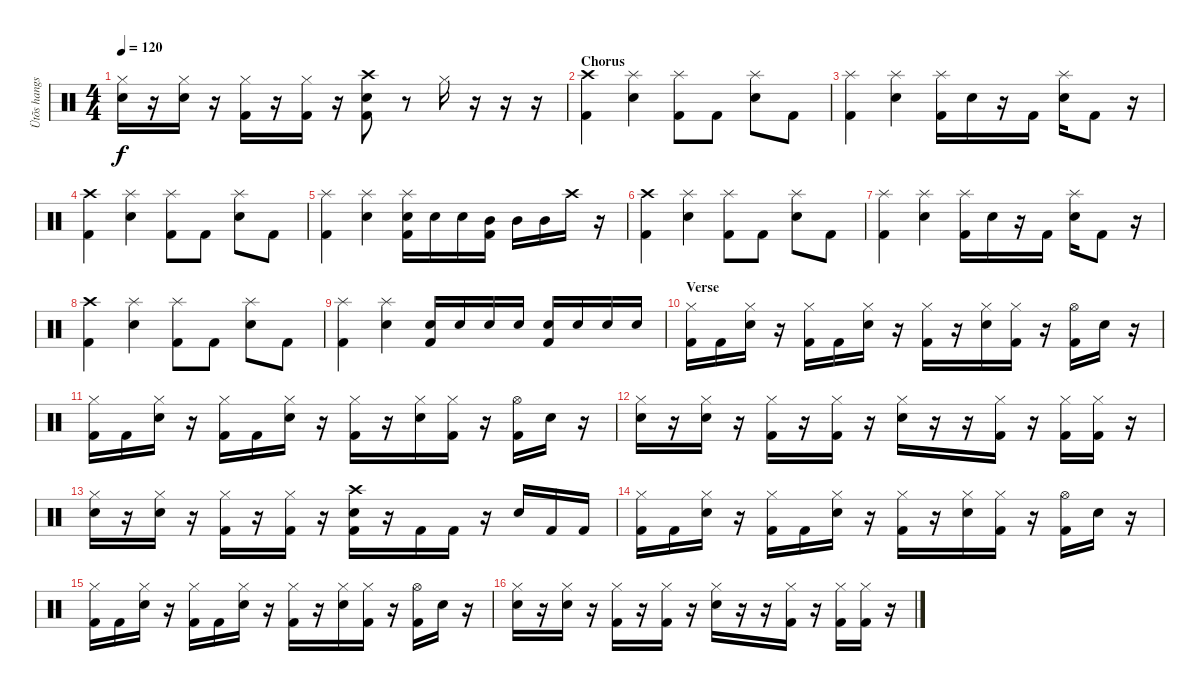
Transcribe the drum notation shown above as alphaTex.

\track ("Ütõs hangszer" "Ütõs hangs") {instrument percussion}
\staff {score}
\articulation defaults
\ts (4 4)
\tempo 120
\clef neutral
\ks c
("Hi-Hat (closed)" "Snare (hit) 2").16{dy f} r.16 ("Hi-Hat (closed)" "Snare (hit) 2").16 r.16 ("Hi-Hat (closed)" "Kick (hit) 2").16 r.16 ("Hi-Hat (closed)" "Kick (hit) 2").16 r.16 ("Crash high (hit)" "Snare (hit) 2" "Kick (hit) 2").8 r.8 "Hi-Hat (closed)".16 r.16 r.16 r.16 |
\section ("" "Chorus")
("Crash high (hit)" "Kick (hit) 2").4 ("Splash (hit)" "Snare (hit) 2").4 ("Splash (hit)" "Kick (hit) 2").8 "Kick (hit) 2".8 ("Splash (hit)" "Snare (hit) 2").8 "Kick (hit) 2".8 |
("Splash (hit)" "Kick (hit) 2").4 ("Splash (hit)" "Snare (hit) 2").4 ("Splash (hit)" "Kick (hit) 2").16 "Snare (hit) 2".16 r.16 "Kick (hit) 2".16 ("Splash (hit)" "Snare (hit) 2").16 "Kick (hit) 2".8 r.16 |
("Crash high (hit)" "Kick (hit) 2").4 ("Splash (hit)" "Snare (hit) 2").4 ("Splash (hit)" "Kick (hit) 2").8 "Kick (hit) 2".8 ("Splash (hit)" "Snare (hit) 2").8 "Kick (hit) 2".8 |
("Splash (hit)" "Kick (hit) 2").4 ("Splash (hit)" "Snare (hit) 2").4 ("Splash (hit)" "Snare (hit) 2" "Kick (hit) 2").16 "Snare (hit) 2".16 "Snare (hit) 2".16 ("Mid Tom (hit)" "Kick (hit) 2").16 "Mid Tom (hit)".16 "Mid Tom (hit)".16 "Crash high (hit)".16 r.16 |
("Crash high (hit)" "Kick (hit) 2").4 ("Splash (hit)" "Snare (hit) 2").4 ("Splash (hit)" "Kick (hit) 2").8 "Kick (hit) 2".8 ("Splash (hit)" "Snare (hit) 2").8 "Kick (hit) 2".8 |
("Splash (hit)" "Kick (hit) 2").4 ("Splash (hit)" "Snare (hit) 2").4 ("Splash (hit)" "Kick (hit) 2").16 "Snare (hit) 2".16 r.16 "Kick (hit) 2".16 ("Splash (hit)" "Snare (hit) 2").16 "Kick (hit) 2".8 r.16 |
("Crash high (hit)" "Kick (hit) 2").4 ("Splash (hit)" "Snare (hit) 2").4 ("Splash (hit)" "Kick (hit) 2").8 "Kick (hit) 2".8 ("Splash (hit)" "Snare (hit) 2").8 "Kick (hit) 2".8 |
("Splash (hit)" "Kick (hit) 2").4 ("Splash (hit)" "Snare (hit) 2").4 ("Snare (hit) 2" "Kick (hit) 2").16 "Snare (hit) 2".16 "Snare (hit) 2".16 "Snare (hit) 2".16 ("Snare (hit) 2" "Kick (hit) 2").16 "Snare (hit) 2".16 "Snare (hit) 2".16 "Snare (hit) 2".16 |
\section ("" "Verse")
("Hi-Hat (closed)" "Kick (hit) 2").16 "Kick (hit) 2".16 ("Hi-Hat (closed)" "Snare (hit) 2").16 r.16 ("Hi-Hat (closed)" "Kick (hit) 2").16 "Kick (hit) 2".16 ("Hi-Hat (closed)" "Snare (hit) 2").16 r.16 ("Hi-Hat (closed)" "Kick (hit) 2").16 r.16 ("Hi-Hat (closed)" "Snare (hit) 2").16 ("Hi-Hat (closed)" "Kick (hit) 2").16 r.16 ("Hi-Hat (open)" "Kick (hit) 2").16 "Snare (hit) 2".16 r.16 |
("Hi-Hat (closed)" "Kick (hit) 2").16 "Kick (hit) 2".16 ("Hi-Hat (closed)" "Snare (hit) 2").16 r.16 ("Hi-Hat (closed)" "Kick (hit) 2").16 "Kick (hit) 2".16 ("Hi-Hat (closed)" "Snare (hit) 2").16 r.16 ("Hi-Hat (closed)" "Kick (hit) 2").16 r.16 ("Hi-Hat (closed)" "Snare (hit) 2").16 ("Hi-Hat (closed)" "Kick (hit) 2").16 r.16 ("Hi-Hat (open)" "Kick (hit) 2").16 "Snare (hit) 2".16 r.16 |
("Hi-Hat (closed)" "Snare (hit) 2").16 r.16 ("Hi-Hat (closed)" "Snare (hit) 2").16 r.16 ("Hi-Hat (closed)" "Kick (hit) 2").16 r.16 ("Hi-Hat (closed)" "Kick (hit) 2").16 r.16 ("Hi-Hat (closed)" "Snare (hit) 2").16 r.16 r.16 ("Hi-Hat (closed)" "Kick (hit) 2").16 r.16 ("Hi-Hat (closed)" "Kick (hit) 2").16 ("Hi-Hat (closed)" "Kick (hit) 2").16 r.16 |
("Hi-Hat (closed)" "Snare (hit) 2").16 r.16 ("Hi-Hat (closed)" "Snare (hit) 2").16 r.16 ("Hi-Hat (closed)" "Kick (hit) 2").16 r.16 ("Hi-Hat (closed)" "Kick (hit) 2").16 r.16 ("Crash high (hit)" "Snare (hit) 2" "Kick (hit) 2").16 r.16 "Kick (hit) 2".16 "Kick (hit) 2".16 r.16 "Snare (hit) 2".16 "Kick (hit) 2".16 "Kick (hit) 2".16 |
("Hi-Hat (closed)" "Kick (hit) 2").16 "Kick (hit) 2".16 ("Hi-Hat (closed)" "Snare (hit) 2").16 r.16 ("Hi-Hat (closed)" "Kick (hit) 2").16 "Kick (hit) 2".16 ("Hi-Hat (closed)" "Snare (hit) 2").16 r.16 ("Hi-Hat (closed)" "Kick (hit) 2").16 r.16 ("Hi-Hat (closed)" "Snare (hit) 2").16 ("Hi-Hat (closed)" "Kick (hit) 2").16 r.16 ("Hi-Hat (open)" "Kick (hit) 2").16 "Snare (hit) 2".16 r.16 |
("Hi-Hat (closed)" "Kick (hit) 2").16 "Kick (hit) 2".16 ("Hi-Hat (closed)" "Snare (hit) 2").16 r.16 ("Hi-Hat (closed)" "Kick (hit) 2").16 "Kick (hit) 2".16 ("Hi-Hat (closed)" "Snare (hit) 2").16 r.16 ("Hi-Hat (closed)" "Kick (hit) 2").16 r.16 ("Hi-Hat (closed)" "Snare (hit) 2").16 ("Hi-Hat (closed)" "Kick (hit) 2").16 r.16 ("Hi-Hat (open)" "Kick (hit) 2").16 "Snare (hit) 2".16 r.16 |
("Hi-Hat (closed)" "Snare (hit) 2").16 r.16 ("Hi-Hat (closed)" "Snare (hit) 2").16 r.16 ("Hi-Hat (closed)" "Kick (hit) 2").16 r.16 ("Hi-Hat (closed)" "Kick (hit) 2").16 r.16 ("Hi-Hat (closed)" "Snare (hit) 2").16 r.16 r.16 ("Hi-Hat (closed)" "Kick (hit) 2").16 r.16 ("Hi-Hat (closed)" "Kick (hit) 2").16 ("Hi-Hat (closed)" "Kick (hit) 2").16 r.16
